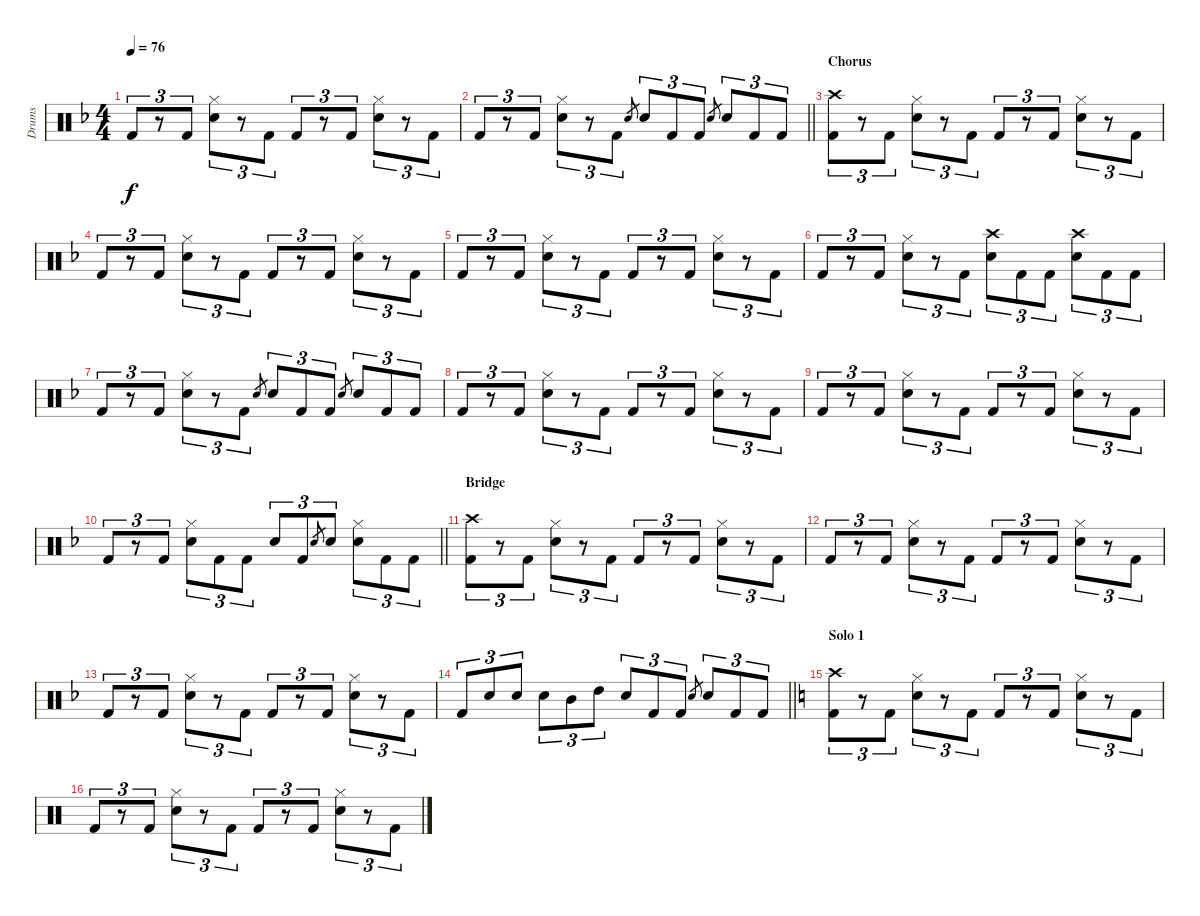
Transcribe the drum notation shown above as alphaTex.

\track ("Drums" "Drums") {instrument percussion}
\staff {score}
\articulation defaults
\ts (4 4)
\tempo 76
\clef neutral
\ks f "Kick (hit) 2".8{tu (3 2) dy f}
r.8{tu (3 2)} "Kick (hit) 2".8{tu (3 2)} ("Hi-Hat (closed)" "Electric Snare (hit)").8{tu (3 2)} r.8{tu (3 2)} "Kick (hit) 2".8{tu (3 2)} "Kick (hit) 2".8{tu (3 2)} r.8{tu (3 2)} "Kick (hit) 2".8{tu (3 2)} ("Hi-Hat (closed)" "Electric Snare (hit)").8{tu (3 2)} r.8{tu (3 2)} "Kick (hit) 2".8{tu (3 2)} |
\barLineRight lightlight "Kick (hit) 2".8{tu (3 2)}
r.8{tu (3 2)} "Kick (hit) 2".8{tu (3 2)} ("Hi-Hat (closed)" "Electric Snare (hit)").8{tu (3 2)} r.8{tu (3 2)} "Kick (hit) 2".8{tu (3 2)} "Electric Snare (hit)".8{gr} "Electric Snare (hit)".8{tu (3 2)} "Kick (hit) 2".8{tu (3 2)} "Kick (hit) 2".8{tu (3 2)} "Electric Snare (hit)".8{gr} "Electric Snare (hit)".8{tu (3 2)} "Kick (hit) 2".8{tu (3 2)} "Kick (hit) 2".8{tu (3 2)} |
\section ("" "Chorus")
("Crash high (hit)" "Kick (hit) 2").8{tu (3 2)} r.8{tu (3 2)} "Kick (hit) 2".8{tu (3 2)} ("Hi-Hat (closed)" "Electric Snare (hit)").8{tu (3 2)} r.8{tu (3 2)} "Kick (hit) 2".8{tu (3 2)} "Kick (hit) 2".8{tu (3 2)} r.8{tu (3 2)} "Kick (hit) 2".8{tu (3 2)} ("Hi-Hat (closed)" "Electric Snare (hit)").8{tu (3 2)} r.8{tu (3 2)} "Kick (hit) 2".8{tu (3 2)} |
"Kick (hit) 2".8{tu (3 2)} r.8{tu (3 2)} "Kick (hit) 2".8{tu (3 2)} ("Hi-Hat (closed)" "Electric Snare (hit)").8{tu (3 2)} r.8{tu (3 2)} "Kick (hit) 2".8{tu (3 2)} "Kick (hit) 2".8{tu (3 2)} r.8{tu (3 2)} "Kick (hit) 2".8{tu (3 2)} ("Hi-Hat (closed)" "Electric Snare (hit)").8{tu (3 2)} r.8{tu (3 2)} "Kick (hit) 2".8{tu (3 2)} |
"Kick (hit) 2".8{tu (3 2)} r.8{tu (3 2)} "Kick (hit) 2".8{tu (3 2)} ("Hi-Hat (closed)" "Electric Snare (hit)").8{tu (3 2)} r.8{tu (3 2)} "Kick (hit) 2".8{tu (3 2)} "Kick (hit) 2".8{tu (3 2)} r.8{tu (3 2)} "Kick (hit) 2".8{tu (3 2)} ("Hi-Hat (closed)" "Electric Snare (hit)").8{tu (3 2)} r.8{tu (3 2)} "Kick (hit) 2".8{tu (3 2)} |
"Kick (hit) 2".8{tu (3 2)} r.8{tu (3 2)} "Kick (hit) 2".8{tu (3 2)} ("Hi-Hat (closed)" "Electric Snare (hit)").8{tu (3 2)} r.8{tu (3 2)} "Kick (hit) 2".8{tu (3 2)} ("Crash high (hit)" "Electric Snare (hit)").8{tu (3 2)} "Kick (hit) 2".8{tu (3 2)} "Kick (hit) 2".8{tu (3 2)} ("Crash high (hit)" "Electric Snare (hit)").8{tu (3 2)} "Kick (hit) 2".8{tu (3 2)} "Kick (hit) 2".8{tu (3 2)} |
"Kick (hit) 2".8{tu (3 2)} r.8{tu (3 2)} "Kick (hit) 2".8{tu (3 2)} ("Hi-Hat (closed)" "Electric Snare (hit)").8{tu (3 2)} r.8{tu (3 2)} "Kick (hit) 2".8{tu (3 2)} "Electric Snare (hit)".8{gr} "Electric Snare (hit)".8{tu (3 2)} "Kick (hit) 2".8{tu (3 2)} "Kick (hit) 2".8{tu (3 2)} "Electric Snare (hit)".8{gr} "Electric Snare (hit)".8{tu (3 2)} "Kick (hit) 2".8{tu (3 2)} "Kick (hit) 2".8{tu (3 2)} |
"Kick (hit) 2".8{tu (3 2)} r.8{tu (3 2)} "Kick (hit) 2".8{tu (3 2)} ("Hi-Hat (closed)" "Electric Snare (hit)").8{tu (3 2)} r.8{tu (3 2)} "Kick (hit) 2".8{tu (3 2)} "Kick (hit) 2".8{tu (3 2)} r.8{tu (3 2)} "Kick (hit) 2".8{tu (3 2)} ("Hi-Hat (closed)" "Electric Snare (hit)").8{tu (3 2)} r.8{tu (3 2)} "Kick (hit) 2".8{tu (3 2)} |
"Kick (hit) 2".8{tu (3 2)} r.8{tu (3 2)} "Kick (hit) 2".8{tu (3 2)} ("Hi-Hat (closed)" "Electric Snare (hit)").8{tu (3 2)} r.8{tu (3 2)} "Kick (hit) 2".8{tu (3 2)} "Kick (hit) 2".8{tu (3 2)} r.8{tu (3 2)} "Kick (hit) 2".8{tu (3 2)} ("Hi-Hat (closed)" "Electric Snare (hit)").8{tu (3 2)} r.8{tu (3 2)} "Kick (hit) 2".8{tu (3 2)} |
\barLineRight lightlight "Kick (hit) 2".8{tu (3 2)}
r.8{tu (3 2)} "Kick (hit) 2".8{tu (3 2)} ("Hi-Hat (closed)" "Electric Snare (hit)").8{tu (3 2)} "Kick (hit) 2".8{tu (3 2)} "Kick (hit) 2".8{tu (3 2)} "Electric Snare (hit)".8{tu (3 2)} "Kick (hit) 2".8{tu (3 2)} "Electric Snare (hit)".8{gr} "Electric Snare (hit)".8{tu (3 2)} ("Hi-Hat (closed)" "Electric Snare (hit)").8{tu (3 2)} "Kick (hit) 2".8{tu (3 2)} "Kick (hit) 2".8{tu (3 2)} |
\section ("" "Bridge")
("Crash high (hit)" "Kick (hit) 2").8{tu (3 2)} r.8{tu (3 2)} "Kick (hit) 2".8{tu (3 2)} ("Hi-Hat (closed)" "Electric Snare (hit)").8{tu (3 2)} r.8{tu (3 2)} "Kick (hit) 2".8{tu (3 2)} "Kick (hit) 2".8{tu (3 2)} r.8{tu (3 2)} "Kick (hit) 2".8{tu (3 2)} ("Hi-Hat (closed)" "Electric Snare (hit)").8{tu (3 2)} r.8{tu (3 2)} "Kick (hit) 2".8{tu (3 2)} |
"Kick (hit) 2".8{tu (3 2)} r.8{tu (3 2)} "Kick (hit) 2".8{tu (3 2)} ("Hi-Hat (closed)" "Electric Snare (hit)").8{tu (3 2)} r.8{tu (3 2)} "Kick (hit) 2".8{tu (3 2)} "Kick (hit) 2".8{tu (3 2)} r.8{tu (3 2)} "Kick (hit) 2".8{tu (3 2)} ("Hi-Hat (closed)" "Electric Snare (hit)").8{tu (3 2)} r.8{tu (3 2)} "Kick (hit) 2".8{tu (3 2)} |
"Kick (hit) 2".8{tu (3 2)} r.8{tu (3 2)} "Kick (hit) 2".8{tu (3 2)} ("Hi-Hat (closed)" "Electric Snare (hit)").8{tu (3 2)} r.8{tu (3 2)} "Kick (hit) 2".8{tu (3 2)} "Kick (hit) 2".8{tu (3 2)} r.8{tu (3 2)} "Kick (hit) 2".8{tu (3 2)} ("Hi-Hat (closed)" "Electric Snare (hit)").8{tu (3 2)} r.8{tu (3 2)} "Kick (hit) 2".8{tu (3 2)} |
\barLineRight lightlight "Kick (hit) 2".8{tu (3 2)} "Electric Snare (hit)".8{tu (3 2)} "Electric Snare (hit)".8{tu (3 2)} "Electric Snare (hit)".8{tu (3 2)} "Mid Tom (hit)".8{tu (3 2)} "High Tom (hit)".8{tu (3 2)} "Electric Snare (hit)".8{tu (3 2)} "Kick (hit) 2".8{tu (3 2)} "Kick (hit) 2".8{tu (3 2)} "Electric Snare (hit)".8{gr} "Electric Snare (hit)".8{tu (3 2)} "Kick (hit) 2".8{tu (3 2)} "Kick (hit) 2".8{tu (3 2)}
|
\section ("" "Solo 1")
\ks c
("Crash high (hit)" "Kick (hit) 2").8{tu (3 2)} r.8{tu (3 2)} "Kick (hit) 2".8{tu (3 2)} ("Hi-Hat (closed)" "Electric Snare (hit)").8{tu (3 2)} r.8{tu (3 2)} "Kick (hit) 2".8{tu (3 2)} "Kick (hit) 2".8{tu (3 2)} r.8{tu (3 2)} "Kick (hit) 2".8{tu (3 2)} ("Hi-Hat (closed)" "Electric Snare (hit)").8{tu (3 2)} r.8{tu (3 2)} "Kick (hit) 2".8{tu (3 2)} |
"Kick (hit) 2".8{tu (3 2)} r.8{tu (3 2)} "Kick (hit) 2".8{tu (3 2)} ("Hi-Hat (closed)" "Electric Snare (hit)").8{tu (3 2)} r.8{tu (3 2)} "Kick (hit) 2".8{tu (3 2)} "Kick (hit) 2".8{tu (3 2)} r.8{tu (3 2)} "Kick (hit) 2".8{tu (3 2)} ("Hi-Hat (closed)" "Electric Snare (hit)").8{tu (3 2)} r.8{tu (3 2)} "Kick (hit) 2".8{tu (3 2)}
